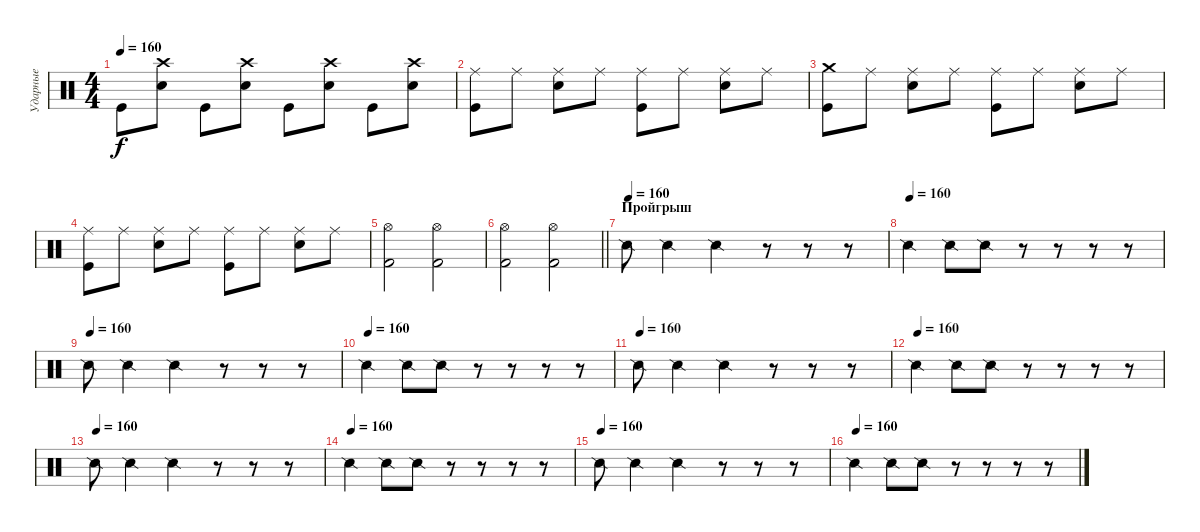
\track ("Ударные" "Ударные") {instrument percussion}
\staff {score}
\articulation defaults
\ts (4 4)
\tempo 160
\clef neutral
\ks c "Kick (hit)".8{dy f}
("Crash high (hit)" "Snare (hit) 2").8 "Kick (hit)".8 ("Crash high (hit)" "Snare (hit) 2").8 "Kick (hit)".8 ("Crash high (hit)" "Snare (hit) 2").8 "Kick (hit)".8 ("Crash high (hit)" "Snare (hit) 2").8 |
("Ride (middle)" "Kick (hit)").8 "Ride (middle)".8 ("Ride (middle)" "Electric Snare (hit)").8 "Ride (middle)".8 ("Ride (middle)" "Kick (hit)").8 "Ride (middle)".8 ("Ride (middle)" "Electric Snare (hit)").8 "Ride (middle)".8 |
("Crash medium (hit)" "Kick (hit)").8 "Ride (middle)".8 ("Ride (middle)" "Electric Snare (hit)").8 "Ride (middle)".8 ("Ride (middle)" "Kick (hit)").8 "Ride (middle)".8 ("Ride (middle)" "Electric Snare (hit)").8 "Ride (middle)".8 |
("Ride (middle)" "Kick (hit)").8 "Ride (middle)".8 ("Ride (middle)" "Electric Snare (hit)").8 "Ride (middle)".8 ("Ride (middle)" "Kick (hit)").8 "Ride (middle)".8 ("Ride (middle)" "Electric Snare (hit)").8 "Ride (middle)".8 |
("Hi-Hat (open)" "Kick (hit) 2").2 ("Hi-Hat (open)" "Kick (hit) 2").2 |
\barLineRight lightlight
("Hi-Hat (open)" "Kick (hit) 2").2 ("Hi-Hat (open)" "Kick (hit) 2").2 |
\section ("" "Пройгрыш")
\tempo (160)
"Snare (side stick) 2".8 "Snare (side stick) 2".4 "Snare (side stick) 2".4 r.8 r.8 r.8 |
\tempo (160)
"Snare (side stick) 2".4 "Snare (side stick) 2".8 "Snare (side stick) 2".8 r.8 r.8 r.8 r.8 |
\tempo (160)
"Snare (side stick) 2".8 "Snare (side stick) 2".4 "Snare (side stick) 2".4 r.8 r.8 r.8 |
\tempo (160)
"Snare (side stick) 2".4 "Snare (side stick) 2".8 "Snare (side stick) 2".8 r.8 r.8 r.8 r.8 |
\tempo (160)
"Snare (side stick) 2".8 "Snare (side stick) 2".4 "Snare (side stick) 2".4 r.8 r.8 r.8 |
\tempo (160)
"Snare (side stick) 2".4 "Snare (side stick) 2".8 "Snare (side stick) 2".8 r.8 r.8 r.8 r.8 |
\tempo (160)
"Snare (side stick) 2".8 "Snare (side stick) 2".4 "Snare (side stick) 2".4 r.8 r.8 r.8 |
\tempo (160)
"Snare (side stick) 2".4 "Snare (side stick) 2".8 "Snare (side stick) 2".8 r.8 r.8 r.8 r.8 |
\tempo (160)
"Snare (side stick) 2".8 "Snare (side stick) 2".4 "Snare (side stick) 2".4 r.8 r.8 r.8 |
\tempo (160)
"Snare (side stick) 2".4 "Snare (side stick) 2".8 "Snare (side stick) 2".8 r.8 r.8 r.8 r.8
